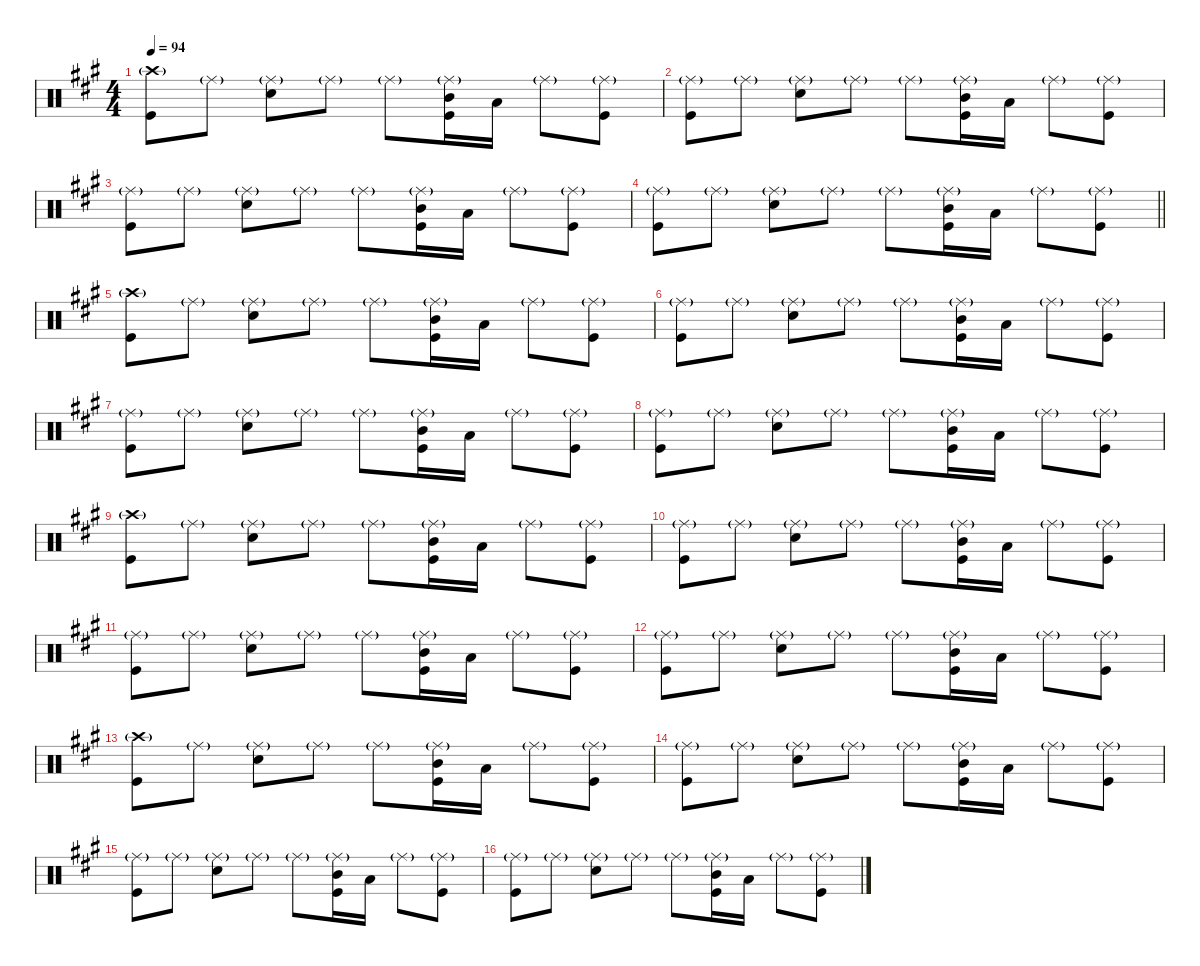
\defaultSystemsLayout 4
\hideDynamics
\bracketExtendMode nobrackets
\singleTrackTrackNamePolicy hidden
\multiTrackTrackNamePolicy hidden
\firstSystemTrackNameMode fullname
\firstSystemTrackNameOrientation horizontal
\otherSystemsTrackNameOrientation horizontal
\track ("Percussion" "drm.") {defaultSystemsLayout 4 instrument percussion}
\staff {score}
\articulation defaults
\ts (4 4)
\beaming (8 2 2 2 2)
\tempo 94
\clef neutral
\ks a
("Crash high (hit)"{g acc forcenatural} "Kick (hit)"{acc forcenatural}).8{dy f beam Down} "Ride (middle)"{g acc forcenatural}.8{dy mf beam Down} ("Ride (middle)"{g acc forcenatural} "Snare (hit) 2"{acc forcenatural}).8{dy f beam Down} "Ride (middle)"{g acc forcenatural}.8{dy mf beam Down} "Ride (middle)"{g acc forcenatural}.8{beam Down} ("Ride (middle)"{g acc forcenatural} "Mid Tom (hit)"{acc forcenatural} "Kick (hit)"{acc forcenatural}).16{dy mp beam Down} "Low Tom (hit)"{acc forcenatural}.16{beam Down} "Ride (middle)"{g acc forcenatural}.8{dy mf beam Down} ("Ride (middle)"{g acc forcenatural} "Kick (hit)"{acc forcenatural}).8{dy f beam Down} |
("Ride (middle)"{g acc forcenatural} "Kick (hit)"{acc forcenatural}).8{beam Down} "Ride (middle)"{g acc forcenatural}.8{dy mf beam Down} ("Ride (middle)"{g acc forcenatural} "Snare (hit) 2"{acc forcenatural}).8{dy f beam Down} "Ride (middle)"{g acc forcenatural}.8{dy mf beam Down} "Ride (middle)"{g acc forcenatural}.8{beam Down} ("Ride (middle)"{g acc forcenatural} "Mid Tom (hit)"{acc forcenatural} "Kick (hit)"{acc forcenatural}).16{dy mp beam Down} "Low Tom (hit)"{acc forcenatural}.16{beam Down} "Ride (middle)"{g acc forcenatural}.8{dy mf beam Down} ("Ride (middle)"{g acc forcenatural} "Kick (hit)"{acc forcenatural}).8{dy f beam Down} |
("Ride (middle)"{g acc forcenatural} "Kick (hit)"{acc forcenatural}).8{beam Down} "Ride (middle)"{g acc forcenatural}.8{dy mf beam Down} ("Ride (middle)"{g acc forcenatural} "Snare (hit) 2"{acc forcenatural}).8{dy f beam Down} "Ride (middle)"{g acc forcenatural}.8{dy mf beam Down} "Ride (middle)"{g acc forcenatural}.8{beam Down} ("Ride (middle)"{g acc forcenatural} "Mid Tom (hit)"{acc forcenatural} "Kick (hit)"{acc forcenatural}).16{dy mp beam Down} "Low Tom (hit)"{acc forcenatural}.16{beam Down} "Ride (middle)"{g acc forcenatural}.8{dy mf beam Down} ("Ride (middle)"{g acc forcenatural} "Kick (hit)"{acc forcenatural}).8{dy f beam Down} |
\barLineRight lightlight
("Ride (middle)"{g acc forcenatural} "Kick (hit)"{acc forcenatural}).8{beam Down} "Ride (middle)"{g acc forcenatural}.8{dy mf beam Down} ("Ride (middle)"{g acc forcenatural} "Snare (hit) 2"{acc forcenatural}).8{dy f beam Down} "Ride (middle)"{g acc forcenatural}.8{dy mf beam Down} "Ride (middle)"{g acc forcenatural}.8{beam Down} ("Ride (middle)"{g acc forcenatural} "Mid Tom (hit)"{acc forcenatural} "Kick (hit)"{acc forcenatural}).16{dy mp beam Down} "Low Tom (hit)"{acc forcenatural}.16{beam Down} "Ride (middle)"{g acc forcenatural}.8{dy mf beam Down} ("Ride (middle)"{g acc forcenatural} "Kick (hit)"{acc forcenatural}).8{dy f beam Down} |
("Crash high (hit)"{g acc forcenatural} "Kick (hit)"{acc forcenatural}).8{beam Down} "Ride (middle)"{g acc forcenatural}.8{dy mf beam Down} ("Ride (middle)"{g acc forcenatural} "Snare (hit) 2"{acc forcenatural}).8{dy f beam Down} "Ride (middle)"{g acc forcenatural}.8{dy mf beam Down} "Ride (middle)"{g acc forcenatural}.8{beam Down} ("Ride (middle)"{g acc forcenatural} "Mid Tom (hit)"{acc forcenatural} "Kick (hit)"{acc forcenatural}).16{dy mp beam Down} "Low Tom (hit)"{acc forcenatural}.16{beam Down} "Ride (middle)"{g acc forcenatural}.8{dy mf beam Down} ("Ride (middle)"{g acc forcenatural} "Kick (hit)"{acc forcenatural}).8{dy f beam Down} |
("Ride (middle)"{g acc forcenatural} "Kick (hit)"{acc forcenatural}).8{beam Down} "Ride (middle)"{g acc forcenatural}.8{dy mf beam Down} ("Ride (middle)"{g acc forcenatural} "Snare (hit) 2"{acc forcenatural}).8{dy f beam Down} "Ride (middle)"{g acc forcenatural}.8{dy mf beam Down} "Ride (middle)"{g acc forcenatural}.8{beam Down} ("Ride (middle)"{g acc forcenatural} "Mid Tom (hit)"{acc forcenatural} "Kick (hit)"{acc forcenatural}).16{dy mp beam Down} "Low Tom (hit)"{acc forcenatural}.16{beam Down} "Ride (middle)"{g acc forcenatural}.8{dy mf beam Down} ("Ride (middle)"{g acc forcenatural} "Kick (hit)"{acc forcenatural}).8{dy f beam Down} |
("Ride (middle)"{g acc forcenatural} "Kick (hit)"{acc forcenatural}).8{beam Down} "Ride (middle)"{g acc forcenatural}.8{dy mf beam Down} ("Ride (middle)"{g acc forcenatural} "Snare (hit) 2"{acc forcenatural}).8{dy f beam Down} "Ride (middle)"{g acc forcenatural}.8{dy mf beam Down} "Ride (middle)"{g acc forcenatural}.8{beam Down} ("Ride (middle)"{g acc forcenatural} "Mid Tom (hit)"{acc forcenatural} "Kick (hit)"{acc forcenatural}).16{dy mp beam Down} "Low Tom (hit)"{acc forcenatural}.16{beam Down} "Ride (middle)"{g acc forcenatural}.8{dy mf beam Down} ("Ride (middle)"{g acc forcenatural} "Kick (hit)"{acc forcenatural}).8{dy f beam Down} |
("Ride (middle)"{g acc forcenatural} "Kick (hit)"{acc forcenatural}).8{beam Down} "Ride (middle)"{g acc forcenatural}.8{dy mf beam Down} ("Ride (middle)"{g acc forcenatural} "Snare (hit) 2"{acc forcenatural}).8{dy f beam Down} "Ride (middle)"{g acc forcenatural}.8{dy mf beam Down} "Ride (middle)"{g acc forcenatural}.8{beam Down} ("Ride (middle)"{g acc forcenatural} "Mid Tom (hit)"{acc forcenatural} "Kick (hit)"{acc forcenatural}).16{dy mp beam Down} "Low Tom (hit)"{acc forcenatural}.16{beam Down} "Ride (middle)"{g acc forcenatural}.8{dy mf beam Down} ("Ride (middle)"{g acc forcenatural} "Kick (hit)"{acc forcenatural}).8{dy f beam Down} |
("Crash high (hit)"{g acc forcenatural} "Kick (hit)"{acc forcenatural}).8{beam Down} "Ride (middle)"{g acc forcenatural}.8{dy mf beam Down} ("Ride (middle)"{g acc forcenatural} "Snare (hit) 2"{acc forcenatural}).8{dy f beam Down} "Ride (middle)"{g acc forcenatural}.8{dy mf beam Down} "Ride (middle)"{g acc forcenatural}.8{beam Down} ("Ride (middle)"{g acc forcenatural} "Mid Tom (hit)"{acc forcenatural} "Kick (hit)"{acc forcenatural}).16{dy mp beam Down} "Low Tom (hit)"{acc forcenatural}.16{beam Down} "Ride (middle)"{g acc forcenatural}.8{dy mf beam Down} ("Ride (middle)"{g acc forcenatural} "Kick (hit)"{acc forcenatural}).8{dy f beam Down} |
("Ride (middle)"{g acc forcenatural} "Kick (hit)"{acc forcenatural}).8{beam Down} "Ride (middle)"{g acc forcenatural}.8{dy mf beam Down} ("Ride (middle)"{g acc forcenatural} "Snare (hit) 2"{acc forcenatural}).8{dy f beam Down} "Ride (middle)"{g acc forcenatural}.8{dy mf beam Down} "Ride (middle)"{g acc forcenatural}.8{beam Down} ("Ride (middle)"{g acc forcenatural} "Mid Tom (hit)"{acc forcenatural} "Kick (hit)"{acc forcenatural}).16{dy mp beam Down} "Low Tom (hit)"{acc forcenatural}.16{beam Down} "Ride (middle)"{g acc forcenatural}.8{dy mf beam Down} ("Ride (middle)"{g acc forcenatural} "Kick (hit)"{acc forcenatural}).8{dy f beam Down} |
("Ride (middle)"{g acc forcenatural} "Kick (hit)"{acc forcenatural}).8{beam Down} "Ride (middle)"{g acc forcenatural}.8{dy mf beam Down} ("Ride (middle)"{g acc forcenatural} "Snare (hit) 2"{acc forcenatural}).8{dy f beam Down} "Ride (middle)"{g acc forcenatural}.8{dy mf beam Down} "Ride (middle)"{g acc forcenatural}.8{beam Down} ("Ride (middle)"{g acc forcenatural} "Mid Tom (hit)"{acc forcenatural} "Kick (hit)"{acc forcenatural}).16{dy mp beam Down} "Low Tom (hit)"{acc forcenatural}.16{beam Down} "Ride (middle)"{g acc forcenatural}.8{dy mf beam Down} ("Ride (middle)"{g acc forcenatural} "Kick (hit)"{acc forcenatural}).8{dy f beam Down} |
("Ride (middle)"{g acc forcenatural} "Kick (hit)"{acc forcenatural}).8{beam Down} "Ride (middle)"{g acc forcenatural}.8{dy mf beam Down} ("Ride (middle)"{g acc forcenatural} "Snare (hit) 2"{acc forcenatural}).8{dy f beam Down} "Ride (middle)"{g acc forcenatural}.8{dy mf beam Down} "Ride (middle)"{g acc forcenatural}.8{beam Down} ("Ride (middle)"{g acc forcenatural} "Mid Tom (hit)"{acc forcenatural} "Kick (hit)"{acc forcenatural}).16{dy mp beam Down} "Low Tom (hit)"{acc forcenatural}.16{beam Down} "Ride (middle)"{g acc forcenatural}.8{dy mf beam Down} ("Ride (middle)"{g acc forcenatural} "Kick (hit)"{acc forcenatural}).8{dy f beam Down} |
("Crash high (hit)"{g acc forcenatural} "Kick (hit)"{acc forcenatural}).8{beam Down} "Ride (middle)"{g acc forcenatural}.8{dy mf beam Down} ("Ride (middle)"{g acc forcenatural} "Snare (hit) 2"{acc forcenatural}).8{dy f beam Down} "Ride (middle)"{g acc forcenatural}.8{dy mf beam Down} "Ride (middle)"{g acc forcenatural}.8{beam Down} ("Ride (middle)"{g acc forcenatural} "Mid Tom (hit)"{acc forcenatural} "Kick (hit)"{acc forcenatural}).16{dy mp beam Down} "Low Tom (hit)"{acc forcenatural}.16{beam Down} "Ride (middle)"{g acc forcenatural}.8{dy mf beam Down} ("Ride (middle)"{g acc forcenatural} "Kick (hit)"{acc forcenatural}).8{dy f beam Down} |
("Ride (middle)"{g acc forcenatural} "Kick (hit)"{acc forcenatural}).8{beam Down} "Ride (middle)"{g acc forcenatural}.8{dy mf beam Down} ("Ride (middle)"{g acc forcenatural} "Snare (hit) 2"{acc forcenatural}).8{dy f beam Down} "Ride (middle)"{g acc forcenatural}.8{dy mf beam Down} "Ride (middle)"{g acc forcenatural}.8{beam Down} ("Ride (middle)"{g acc forcenatural} "Mid Tom (hit)"{acc forcenatural} "Kick (hit)"{acc forcenatural}).16{dy mp beam Down} "Low Tom (hit)"{acc forcenatural}.16{beam Down} "Ride (middle)"{g acc forcenatural}.8{dy mf beam Down} ("Ride (middle)"{g acc forcenatural} "Kick (hit)"{acc forcenatural}).8{dy f beam Down} |
("Ride (middle)"{g acc forcenatural} "Kick (hit)"{acc forcenatural}).8{beam Down} "Ride (middle)"{g acc forcenatural}.8{dy mf beam Down} ("Ride (middle)"{g acc forcenatural} "Snare (hit) 2"{acc forcenatural}).8{dy f beam Down} "Ride (middle)"{g acc forcenatural}.8{dy mf beam Down} "Ride (middle)"{g acc forcenatural}.8{beam Down} ("Ride (middle)"{g acc forcenatural} "Mid Tom (hit)"{acc forcenatural} "Kick (hit)"{acc forcenatural}).16{dy mp beam Down} "Low Tom (hit)"{acc forcenatural}.16{beam Down} "Ride (middle)"{g acc forcenatural}.8{dy mf beam Down} ("Ride (middle)"{g acc forcenatural} "Kick (hit)"{acc forcenatural}).8{dy f beam Down} |
("Ride (middle)"{g acc forcenatural} "Kick (hit)"{acc forcenatural}).8{beam Down} "Ride (middle)"{g acc forcenatural}.8{dy mf beam Down} ("Ride (middle)"{g acc forcenatural} "Snare (hit) 2"{acc forcenatural}).8{dy f beam Down} "Ride (middle)"{g acc forcenatural}.8{dy mf beam Down} "Ride (middle)"{g acc forcenatural}.8{beam Down} ("Ride (middle)"{g acc forcenatural} "Mid Tom (hit)"{acc forcenatural} "Kick (hit)"{acc forcenatural}).16{dy mp beam Down} "Low Tom (hit)"{acc forcenatural}.16{beam Down} "Ride (middle)"{g acc forcenatural}.8{dy mf beam Down} ("Ride (middle)"{g acc forcenatural} "Kick (hit)"{acc forcenatural}).8{dy f beam Down}
